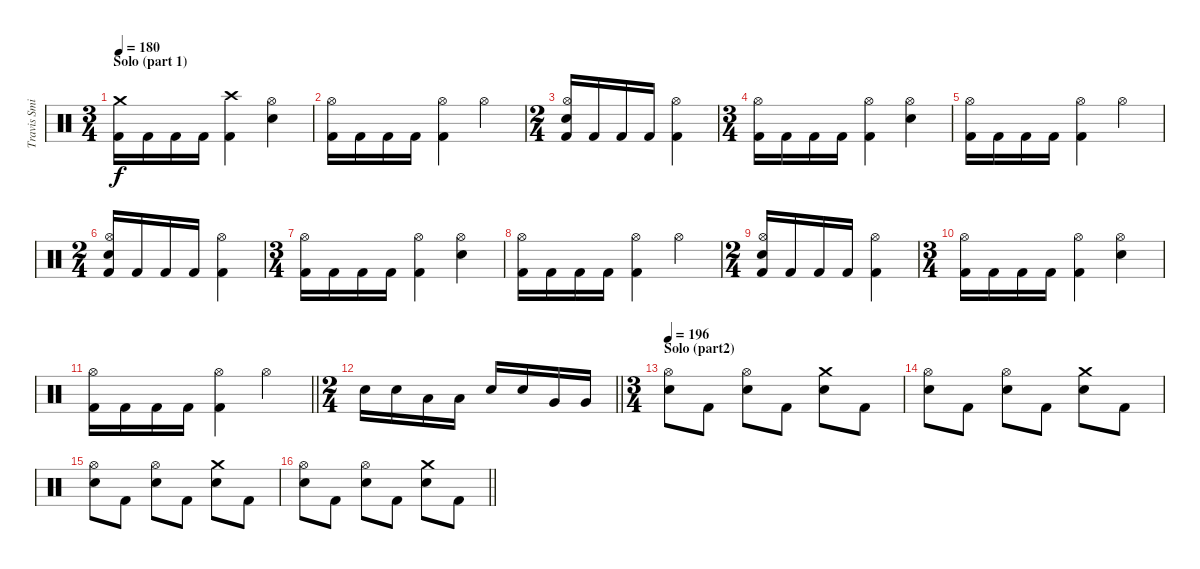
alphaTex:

\track ("Travis Smith" "Travis Smi") {instrument percussion}
\staff {score}
\articulation defaults
\ts (3 4)
\section ("" "Solo (part 1)")
\tempo 180
\clef neutral
\ks c
("Crash medium (hit)" "Kick (hit) 2").16{dy f} "Kick (hit) 2".16 "Kick (hit) 2".16 "Kick (hit) 2".16 ("Crash high (hit)" "Kick (hit) 2").4 ("Hi-Hat (open)" "Electric Snare (hit)").4 |
("Hi-Hat (open)" "Kick (hit) 2").16 "Kick (hit) 2".16 "Kick (hit) 2".16 "Kick (hit) 2".16 ("Hi-Hat (open)" "Kick (hit) 2").4 "Hi-Hat (open)".4 |
\ts (2 4)
("Hi-Hat (open)" "Electric Snare (hit)" "Kick (hit) 2").16 "Kick (hit) 2".16 "Kick (hit) 2".16 "Kick (hit) 2".16 ("Hi-Hat (open)" "Kick (hit) 2").4 |
\ts (3 4)
("Hi-Hat (open)" "Kick (hit) 2").16 "Kick (hit) 2".16 "Kick (hit) 2".16 "Kick (hit) 2".16 ("Hi-Hat (open)" "Kick (hit) 2").4 ("Hi-Hat (open)" "Electric Snare (hit)").4 |
("Hi-Hat (open)" "Kick (hit) 2").16 "Kick (hit) 2".16 "Kick (hit) 2".16 "Kick (hit) 2".16 ("Hi-Hat (open)" "Kick (hit) 2").4 "Hi-Hat (open)".4 |
\ts (2 4)
("Hi-Hat (open)" "Electric Snare (hit)" "Kick (hit) 2").16 "Kick (hit) 2".16 "Kick (hit) 2".16 "Kick (hit) 2".16 ("Hi-Hat (open)" "Kick (hit) 2").4 |
\ts (3 4)
("Hi-Hat (open)" "Kick (hit) 2").16 "Kick (hit) 2".16 "Kick (hit) 2".16 "Kick (hit) 2".16 ("Hi-Hat (open)" "Kick (hit) 2").4 ("Hi-Hat (open)" "Electric Snare (hit)").4 |
("Hi-Hat (open)" "Kick (hit) 2").16 "Kick (hit) 2".16 "Kick (hit) 2".16 "Kick (hit) 2".16 ("Hi-Hat (open)" "Kick (hit) 2").4 "Hi-Hat (open)".4 |
\ts (2 4)
("Hi-Hat (open)" "Electric Snare (hit)" "Kick (hit) 2").16 "Kick (hit) 2".16 "Kick (hit) 2".16 "Kick (hit) 2".16 ("Hi-Hat (open)" "Kick (hit) 2").4 |
\ts (3 4)
("Hi-Hat (open)" "Kick (hit) 2").16 "Kick (hit) 2".16 "Kick (hit) 2".16 "Kick (hit) 2".16 ("Hi-Hat (open)" "Kick (hit) 2").4 ("Hi-Hat (open)" "Electric Snare (hit)").4 |
\barLineRight lightlight
("Hi-Hat (open)" "Kick (hit) 2").16 "Kick (hit) 2".16 "Kick (hit) 2".16 "Kick (hit) 2".16 ("Hi-Hat (open)" "Kick (hit) 2").4 "Hi-Hat (open)".4 |
\ts (2 4)
\section ("" "")
\barLineRight lightlight "Electric Snare (hit)".16 "Electric Snare (hit)".16 "Low Tom (hit)".16 "Low Tom (hit)".16 "Electric Snare (hit)".16 "Electric Snare (hit)".16 "Very Low Tom (hit)".16 "Very Low Tom (hit)".16
|
\ts (3 4)
\section ("" "Solo (part2)")
\tempo 196
("Hi-Hat (open)" "Electric Snare (hit)").8 "Kick (hit) 2".8 ("Hi-Hat (open)" "Electric Snare (hit)").8 "Kick (hit) 2".8 ("Crash medium (hit)" "Electric Snare (hit)").8 "Kick (hit) 2".8 |
("Hi-Hat (open)" "Electric Snare (hit)").8 "Kick (hit) 2".8 ("Hi-Hat (open)" "Electric Snare (hit)").8 "Kick (hit) 2".8 ("Crash medium (hit)" "Electric Snare (hit)").8 "Kick (hit) 2".8 |
("Hi-Hat (open)" "Electric Snare (hit)").8 "Kick (hit) 2".8 ("Hi-Hat (open)" "Electric Snare (hit)").8 "Kick (hit) 2".8 ("Crash medium (hit)" "Electric Snare (hit)").8 "Kick (hit) 2".8 |
\barLineRight lightlight
("Hi-Hat (open)" "Electric Snare (hit)").8 "Kick (hit) 2".8 ("Hi-Hat (open)" "Electric Snare (hit)").8 "Kick (hit) 2".8 ("Crash medium (hit)" "Electric Snare (hit)").8 "Kick (hit) 2".8
